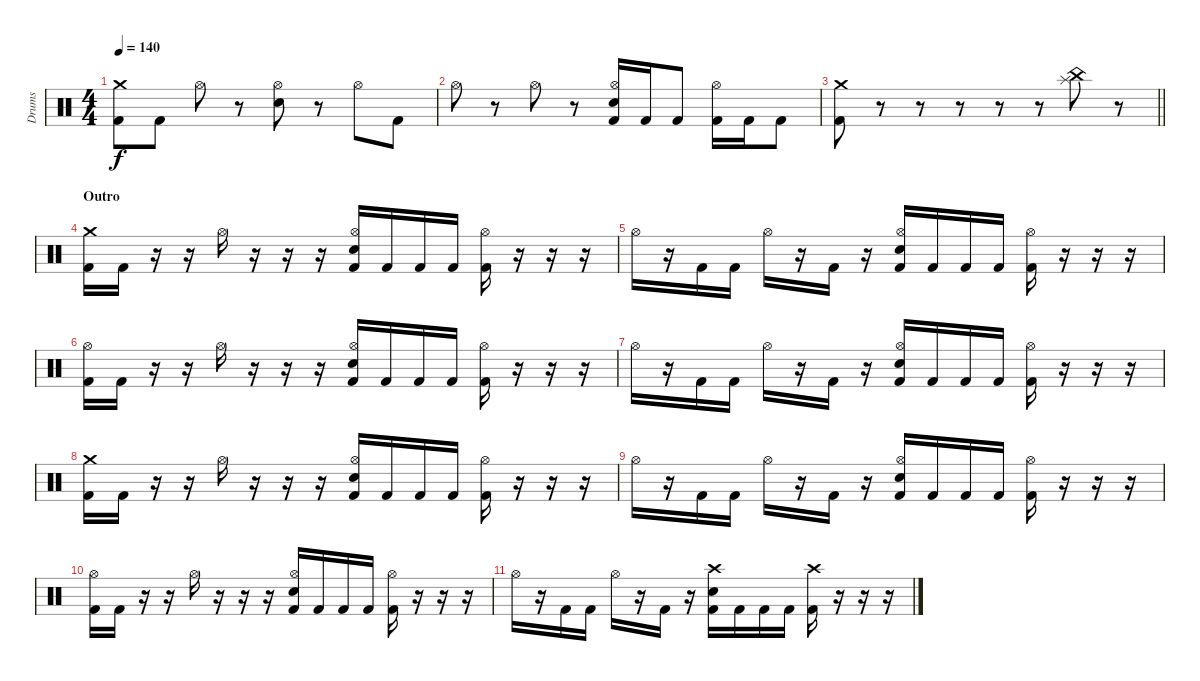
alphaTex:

\track ("Drums" "Drums") {instrument percussion}
\staff {score}
\articulation defaults
\ts (4 4)
\tempo 140
\clef neutral
\ks c
("Crash medium (hit)" "Kick (hit) 2").8{dy f} "Kick (hit) 2".8 "Hi-Hat (open)".8 r.8 ("Hi-Hat (open)" "Electric Snare (hit)").8 r.8 "Hi-Hat (open)".8 "Kick (hit) 2".8 |
"Hi-Hat (open)".8 r.8 "Hi-Hat (open)".8 r.8 ("Hi-Hat (open)" "Electric Snare (hit)" "Kick (hit) 2").16 "Kick (hit) 2".16 "Kick (hit) 2".8 ("Hi-Hat (open)" "Kick (hit) 2").16 "Kick (hit) 2".16 "Kick (hit) 2".8 |
\barLineRight lightlight
("Crash medium (hit)" "Kick (hit) 2").8 r.8 r.8 r.8 r.8 r.8 ("China (hit)" "Splash (hit)").8 r.8 |
\section ("" "Outro")
("Crash medium (hit)" "Kick (hit) 2").16 "Kick (hit) 2".16 r.16 r.16 "Hi-Hat (open)".16 r.16 r.16 r.16 ("Hi-Hat (open)" "Electric Snare (hit)" "Kick (hit) 2").16 "Kick (hit) 2".16 "Kick (hit) 2".16 "Kick (hit) 2".16 ("Hi-Hat (open)" "Kick (hit) 2").16 r.16 r.16 r.16 |
"Hi-Hat (open)".16 r.16 "Kick (hit) 2".16 "Kick (hit) 2".16 "Hi-Hat (open)".16 r.16 "Kick (hit) 2".16 r.16 ("Hi-Hat (open)" "Electric Snare (hit)" "Kick (hit) 2").16 "Kick (hit) 2".16 "Kick (hit) 2".16 "Kick (hit) 2".16 ("Hi-Hat (open)" "Kick (hit) 2").16 r.16 r.16 r.16 |
("Hi-Hat (open)" "Kick (hit) 2").16 "Kick (hit) 2".16 r.16 r.16 "Hi-Hat (open)".16 r.16 r.16 r.16 ("Hi-Hat (open)" "Electric Snare (hit)" "Kick (hit) 2").16 "Kick (hit) 2".16 "Kick (hit) 2".16 "Kick (hit) 2".16 ("Hi-Hat (open)" "Kick (hit) 2").16 r.16 r.16 r.16 |
"Hi-Hat (open)".16 r.16 "Kick (hit) 2".16 "Kick (hit) 2".16 "Hi-Hat (open)".16 r.16 "Kick (hit) 2".16 r.16 ("Hi-Hat (open)" "Electric Snare (hit)" "Kick (hit) 2").16 "Kick (hit) 2".16 "Kick (hit) 2".16 "Kick (hit) 2".16 ("Hi-Hat (open)" "Kick (hit) 2").16 r.16 r.16 r.16 |
("Crash medium (hit)" "Kick (hit) 2").16 "Kick (hit) 2".16 r.16 r.16 "Hi-Hat (open)".16 r.16 r.16 r.16 ("Hi-Hat (open)" "Electric Snare (hit)" "Kick (hit) 2").16 "Kick (hit) 2".16 "Kick (hit) 2".16 "Kick (hit) 2".16 ("Hi-Hat (open)" "Kick (hit) 2").16 r.16 r.16 r.16 |
"Hi-Hat (open)".16 r.16 "Kick (hit) 2".16 "Kick (hit) 2".16 "Hi-Hat (open)".16 r.16 "Kick (hit) 2".16 r.16 ("Hi-Hat (open)" "Electric Snare (hit)" "Kick (hit) 2").16 "Kick (hit) 2".16 "Kick (hit) 2".16 "Kick (hit) 2".16 ("Hi-Hat (open)" "Kick (hit) 2").16 r.16 r.16 r.16 |
("Hi-Hat (open)" "Kick (hit) 2").16 "Kick (hit) 2".16 r.16 r.16 "Hi-Hat (open)".16 r.16 r.16 r.16 ("Hi-Hat (open)" "Electric Snare (hit)" "Kick (hit) 2").16 "Kick (hit) 2".16 "Kick (hit) 2".16 "Kick (hit) 2".16 ("Hi-Hat (open)" "Kick (hit) 2").16 r.16 r.16 r.16 |
"Hi-Hat (open)".16 r.16 "Kick (hit) 2".16 "Kick (hit) 2".16 "Hi-Hat (open)".16 r.16 "Kick (hit) 2".16 r.16 ("Crash high (hit)" "Electric Snare (hit)" "Kick (hit) 2").16 "Kick (hit) 2".16 "Kick (hit) 2".16 "Kick (hit) 2".16 ("Crash high (hit)" "Kick (hit) 2").16 r.16 r.16 r.16
